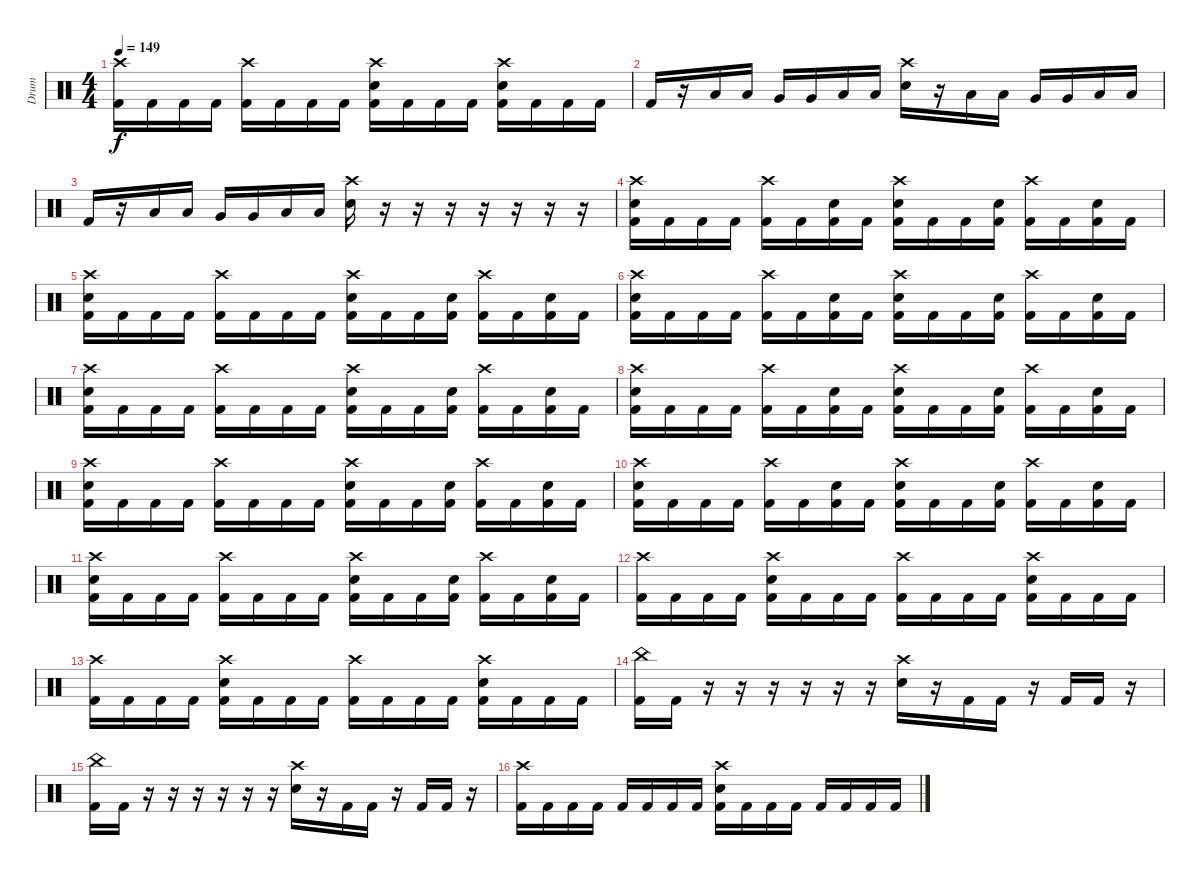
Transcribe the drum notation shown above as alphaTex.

\track ("Drum" "Drum") {instrument percussion}
\staff {score}
\articulation defaults
\ts (4 4)
\tempo 149
\clef neutral
\ks c
("Crash high (hit)" "Kick (hit) 2").16{dy f} "Kick (hit) 2".16 "Kick (hit) 2".16 "Kick (hit) 2".16 ("Crash high (hit)" "Kick (hit) 2").16 "Kick (hit) 2".16 "Kick (hit) 2".16 "Kick (hit) 2".16 ("Crash high (hit)" "Electric Snare (hit)" "Kick (hit) 2").16 "Kick (hit) 2".16 "Kick (hit) 2".16 "Kick (hit) 2".16 ("Crash high (hit)" "Electric Snare (hit)" "Kick (hit) 2").16 "Kick (hit) 2".16 "Kick (hit) 2".16 "Kick (hit) 2".16 |
"Kick (hit) 2".16 r.16 "Low Tom (hit)".16 "Low Tom (hit)".16 "Very Low Tom (hit)".16 "Very Low Tom (hit)".16 "Low Floor Tom (hit)".16 "Low Floor Tom (hit)".16 ("Crash high (hit)" "Electric Snare (hit)").16 r.16 "Low Tom (hit)".16 "Low Tom (hit)".16 "Very Low Tom (hit)".16 "Very Low Tom (hit)".16 "Low Floor Tom (hit)".16 "Low Floor Tom (hit)".16 |
"Kick (hit) 2".16 r.16 "Low Tom (hit)".16 "Low Tom (hit)".16 "Very Low Tom (hit)".16 "Very Low Tom (hit)".16 "Low Floor Tom (hit)".16 "Low Floor Tom (hit)".16 ("Crash high (hit)" "Electric Snare (hit)").16 r.16 r.16 r.16 r.16 r.16 r.16 r.16 |
("Crash high (hit)" "Electric Snare (hit)" "Kick (hit) 2").16 "Kick (hit) 2".16 "Kick (hit) 2".16 "Kick (hit) 2".16 ("Crash high (hit)" "Kick (hit) 2").16 "Kick (hit) 2".16 ("Electric Snare (hit)" "Kick (hit) 2").16 "Kick (hit) 2".16 ("Crash high (hit)" "Electric Snare (hit)" "Kick (hit) 2").16 "Kick (hit) 2".16 "Kick (hit) 2".16 ("Electric Snare (hit)" "Kick (hit) 2").16 ("Crash high (hit)" "Kick (hit) 2").16 "Kick (hit) 2".16 ("Electric Snare (hit)" "Kick (hit) 2").16 "Kick (hit) 2".16 |
("Crash high (hit)" "Electric Snare (hit)" "Kick (hit) 2").16 "Kick (hit) 2".16 "Kick (hit) 2".16 "Kick (hit) 2".16 ("Crash high (hit)" "Kick (hit) 2").16 "Kick (hit) 2".16 "Kick (hit) 2".16 "Kick (hit) 2".16 ("Crash high (hit)" "Electric Snare (hit)" "Kick (hit) 2").16 "Kick (hit) 2".16 "Kick (hit) 2".16 ("Electric Snare (hit)" "Kick (hit) 2").16 ("Crash high (hit)" "Kick (hit) 2").16 "Kick (hit) 2".16 ("Electric Snare (hit)" "Kick (hit) 2").16 "Kick (hit) 2".16 |
("Crash high (hit)" "Electric Snare (hit)" "Kick (hit) 2").16 "Kick (hit) 2".16 "Kick (hit) 2".16 "Kick (hit) 2".16 ("Crash high (hit)" "Kick (hit) 2").16 "Kick (hit) 2".16 ("Electric Snare (hit)" "Kick (hit) 2").16 "Kick (hit) 2".16 ("Crash high (hit)" "Electric Snare (hit)" "Kick (hit) 2").16 "Kick (hit) 2".16 "Kick (hit) 2".16 ("Electric Snare (hit)" "Kick (hit) 2").16 ("Crash high (hit)" "Kick (hit) 2").16 "Kick (hit) 2".16 ("Electric Snare (hit)" "Kick (hit) 2").16 "Kick (hit) 2".16 |
("Crash high (hit)" "Electric Snare (hit)" "Kick (hit) 2").16 "Kick (hit) 2".16 "Kick (hit) 2".16 "Kick (hit) 2".16 ("Crash high (hit)" "Kick (hit) 2").16 "Kick (hit) 2".16 "Kick (hit) 2".16 "Kick (hit) 2".16 ("Crash high (hit)" "Electric Snare (hit)" "Kick (hit) 2").16 "Kick (hit) 2".16 "Kick (hit) 2".16 ("Electric Snare (hit)" "Kick (hit) 2").16 ("Crash high (hit)" "Kick (hit) 2").16 "Kick (hit) 2".16 ("Electric Snare (hit)" "Kick (hit) 2").16 "Kick (hit) 2".16 |
("Crash high (hit)" "Electric Snare (hit)" "Kick (hit) 2").16 "Kick (hit) 2".16 "Kick (hit) 2".16 "Kick (hit) 2".16 ("Crash high (hit)" "Kick (hit) 2").16 "Kick (hit) 2".16 ("Electric Snare (hit)" "Kick (hit) 2").16 "Kick (hit) 2".16 ("Crash high (hit)" "Electric Snare (hit)" "Kick (hit) 2").16 "Kick (hit) 2".16 "Kick (hit) 2".16 ("Electric Snare (hit)" "Kick (hit) 2").16 ("Crash high (hit)" "Kick (hit) 2").16 "Kick (hit) 2".16 ("Electric Snare (hit)" "Kick (hit) 2").16 "Kick (hit) 2".16 |
("Crash high (hit)" "Electric Snare (hit)" "Kick (hit) 2").16 "Kick (hit) 2".16 "Kick (hit) 2".16 "Kick (hit) 2".16 ("Crash high (hit)" "Kick (hit) 2").16 "Kick (hit) 2".16 "Kick (hit) 2".16 "Kick (hit) 2".16 ("Crash high (hit)" "Electric Snare (hit)" "Kick (hit) 2").16 "Kick (hit) 2".16 "Kick (hit) 2".16 ("Electric Snare (hit)" "Kick (hit) 2").16 ("Crash high (hit)" "Kick (hit) 2").16 "Kick (hit) 2".16 ("Electric Snare (hit)" "Kick (hit) 2").16 "Kick (hit) 2".16 |
("Crash high (hit)" "Electric Snare (hit)" "Kick (hit) 2").16 "Kick (hit) 2".16 "Kick (hit) 2".16 "Kick (hit) 2".16 ("Crash high (hit)" "Kick (hit) 2").16 "Kick (hit) 2".16 ("Electric Snare (hit)" "Kick (hit) 2").16 "Kick (hit) 2".16 ("Crash high (hit)" "Electric Snare (hit)" "Kick (hit) 2").16 "Kick (hit) 2".16 "Kick (hit) 2".16 ("Electric Snare (hit)" "Kick (hit) 2").16 ("Crash high (hit)" "Kick (hit) 2").16 "Kick (hit) 2".16 ("Electric Snare (hit)" "Kick (hit) 2").16 "Kick (hit) 2".16 |
("Crash high (hit)" "Electric Snare (hit)" "Kick (hit) 2").16 "Kick (hit) 2".16 "Kick (hit) 2".16 "Kick (hit) 2".16 ("Crash high (hit)" "Kick (hit) 2").16 "Kick (hit) 2".16 "Kick (hit) 2".16 "Kick (hit) 2".16 ("Crash high (hit)" "Electric Snare (hit)" "Kick (hit) 2").16 "Kick (hit) 2".16 "Kick (hit) 2".16 ("Electric Snare (hit)" "Kick (hit) 2").16 ("Crash high (hit)" "Kick (hit) 2").16 "Kick (hit) 2".16 ("Electric Snare (hit)" "Kick (hit) 2").16 "Kick (hit) 2".16 |
("Crash high (hit)" "Kick (hit) 2").16 "Kick (hit) 2".16 "Kick (hit) 2".16 "Kick (hit) 2".16 ("Crash high (hit)" "Electric Snare (hit)" "Kick (hit) 2").16 "Kick (hit) 2".16 "Kick (hit) 2".16 "Kick (hit) 2".16 ("Crash high (hit)" "Kick (hit) 2").16 "Kick (hit) 2".16 "Kick (hit) 2".16 "Kick (hit) 2".16 ("Crash high (hit)" "Electric Snare (hit)" "Kick (hit) 2").16 "Kick (hit) 2".16 "Kick (hit) 2".16 "Kick (hit) 2".16 |
("Crash high (hit)" "Kick (hit) 2").16 "Kick (hit) 2".16 "Kick (hit) 2".16 "Kick (hit) 2".16 ("Crash high (hit)" "Electric Snare (hit)" "Kick (hit) 2").16 "Kick (hit) 2".16 "Kick (hit) 2".16 "Kick (hit) 2".16 ("Crash high (hit)" "Kick (hit) 2").16 "Kick (hit) 2".16 "Kick (hit) 2".16 "Kick (hit) 2".16 ("Crash high (hit)" "Electric Snare (hit)" "Kick (hit) 2").16 "Kick (hit) 2".16 "Kick (hit) 2".16 "Kick (hit) 2".16 |
("China (hit)" "Kick (hit) 2").16 "Kick (hit) 2".16 r.16 r.16 r.16 r.16 r.16 r.16 ("Crash high (hit)" "Electric Snare (hit)").16 r.16 "Kick (hit) 2".16 "Kick (hit) 2".16 r.16 "Kick (hit) 2".16 "Kick (hit) 2".16 r.16 |
("China (hit)" "Kick (hit) 2").16 "Kick (hit) 2".16 r.16 r.16 r.16 r.16 r.16 r.16 ("Crash high (hit)" "Electric Snare (hit)").16 r.16 "Kick (hit) 2".16 "Kick (hit) 2".16 r.16 "Kick (hit) 2".16 "Kick (hit) 2".16 r.16 |
("Crash high (hit)" "Kick (hit) 2").16 "Kick (hit) 2".16 "Kick (hit) 2".16 "Kick (hit) 2".16 "Kick (hit) 2".16 "Kick (hit) 2".16 "Kick (hit) 2".16 "Kick (hit) 2".16 ("Crash high (hit)" "Electric Snare (hit)" "Kick (hit) 2").16 "Kick (hit) 2".16 "Kick (hit) 2".16 "Kick (hit) 2".16 "Kick (hit) 2".16 "Kick (hit) 2".16 "Kick (hit) 2".16 "Kick (hit) 2".16
